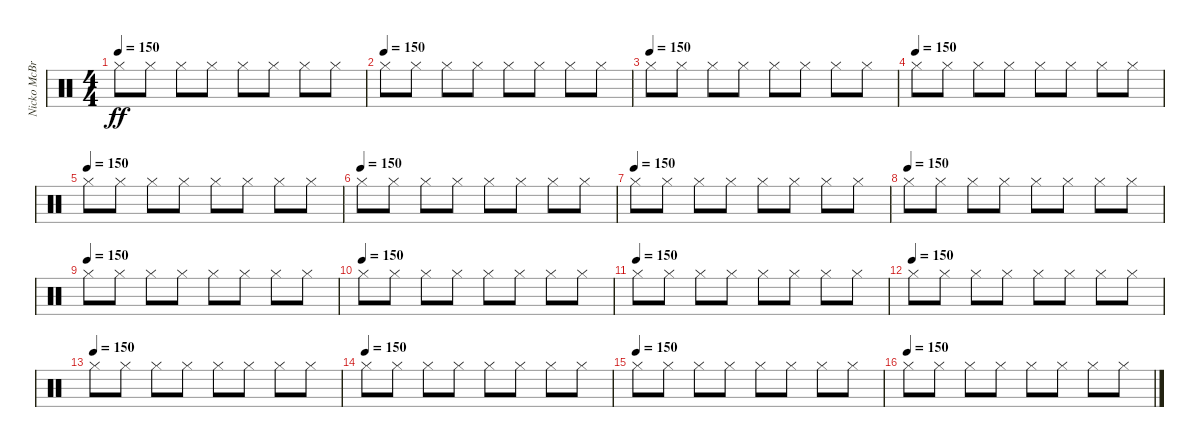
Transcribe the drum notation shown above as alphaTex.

\track ("Nicko McBrain" "Nicko McBr") {instrument percussion}
\staff {score}
\articulation defaults
\ts (4 4)
\tempo 150
\clef neutral
\ks c "Hi-Hat (closed)".8{dy ff} "Hi-Hat (closed)".8 "Hi-Hat (closed)".8 "Hi-Hat (closed)".8 "Hi-Hat (closed)".8 "Hi-Hat (closed)".8 "Hi-Hat (closed)".8 "Hi-Hat (closed)".8
|
\tempo (150)
"Hi-Hat (closed)".8 "Hi-Hat (closed)".8 "Hi-Hat (closed)".8 "Hi-Hat (closed)".8 "Hi-Hat (closed)".8 "Hi-Hat (closed)".8 "Hi-Hat (closed)".8 "Hi-Hat (closed)".8 |
\tempo (150)
"Hi-Hat (closed)".8 "Hi-Hat (closed)".8 "Hi-Hat (closed)".8 "Hi-Hat (closed)".8 "Hi-Hat (closed)".8 "Hi-Hat (closed)".8 "Hi-Hat (closed)".8 "Hi-Hat (closed)".8 |
\tempo (150)
"Hi-Hat (closed)".8 "Hi-Hat (closed)".8 "Hi-Hat (closed)".8 "Hi-Hat (closed)".8 "Hi-Hat (closed)".8 "Hi-Hat (closed)".8 "Hi-Hat (closed)".8 "Hi-Hat (closed)".8 |
\tempo (150)
"Hi-Hat (closed)".8 "Hi-Hat (closed)".8 "Hi-Hat (closed)".8 "Hi-Hat (closed)".8 "Hi-Hat (closed)".8 "Hi-Hat (closed)".8 "Hi-Hat (closed)".8 "Hi-Hat (closed)".8 |
\tempo (150)
"Hi-Hat (closed)".8 "Hi-Hat (closed)".8 "Hi-Hat (closed)".8 "Hi-Hat (closed)".8 "Hi-Hat (closed)".8 "Hi-Hat (closed)".8 "Hi-Hat (closed)".8 "Hi-Hat (closed)".8 |
\tempo (150)
"Hi-Hat (closed)".8 "Hi-Hat (closed)".8 "Hi-Hat (closed)".8 "Hi-Hat (closed)".8 "Hi-Hat (closed)".8 "Hi-Hat (closed)".8 "Hi-Hat (closed)".8 "Hi-Hat (closed)".8 |
\tempo (150)
"Hi-Hat (closed)".8 "Hi-Hat (closed)".8 "Hi-Hat (closed)".8 "Hi-Hat (closed)".8 "Hi-Hat (closed)".8 "Hi-Hat (closed)".8 "Hi-Hat (closed)".8 "Hi-Hat (closed)".8 |
\tempo (150)
"Hi-Hat (closed)".8 "Hi-Hat (closed)".8 "Hi-Hat (closed)".8 "Hi-Hat (closed)".8 "Hi-Hat (closed)".8 "Hi-Hat (closed)".8 "Hi-Hat (closed)".8 "Hi-Hat (closed)".8 |
\tempo (150)
"Hi-Hat (closed)".8 "Hi-Hat (closed)".8 "Hi-Hat (closed)".8 "Hi-Hat (closed)".8 "Hi-Hat (closed)".8 "Hi-Hat (closed)".8 "Hi-Hat (closed)".8 "Hi-Hat (closed)".8 |
\tempo (150)
"Hi-Hat (closed)".8 "Hi-Hat (closed)".8 "Hi-Hat (closed)".8 "Hi-Hat (closed)".8 "Hi-Hat (closed)".8 "Hi-Hat (closed)".8 "Hi-Hat (closed)".8 "Hi-Hat (closed)".8 |
\tempo (150)
"Hi-Hat (closed)".8 "Hi-Hat (closed)".8 "Hi-Hat (closed)".8 "Hi-Hat (closed)".8 "Hi-Hat (closed)".8 "Hi-Hat (closed)".8 "Hi-Hat (closed)".8 "Hi-Hat (closed)".8 |
\tempo (150)
"Hi-Hat (closed)".8 "Hi-Hat (closed)".8 "Hi-Hat (closed)".8 "Hi-Hat (closed)".8 "Hi-Hat (closed)".8 "Hi-Hat (closed)".8 "Hi-Hat (closed)".8 "Hi-Hat (closed)".8 |
\tempo (150)
"Hi-Hat (closed)".8 "Hi-Hat (closed)".8 "Hi-Hat (closed)".8 "Hi-Hat (closed)".8 "Hi-Hat (closed)".8 "Hi-Hat (closed)".8 "Hi-Hat (closed)".8 "Hi-Hat (closed)".8 |
\tempo (150)
"Hi-Hat (closed)".8 "Hi-Hat (closed)".8 "Hi-Hat (closed)".8 "Hi-Hat (closed)".8 "Hi-Hat (closed)".8 "Hi-Hat (closed)".8 "Hi-Hat (closed)".8 "Hi-Hat (closed)".8 |
\tempo (150)
"Hi-Hat (closed)".8 "Hi-Hat (closed)".8 "Hi-Hat (closed)".8 "Hi-Hat (closed)".8 "Hi-Hat (closed)".8 "Hi-Hat (closed)".8 "Hi-Hat (closed)".8 "Hi-Hat (closed)".8
